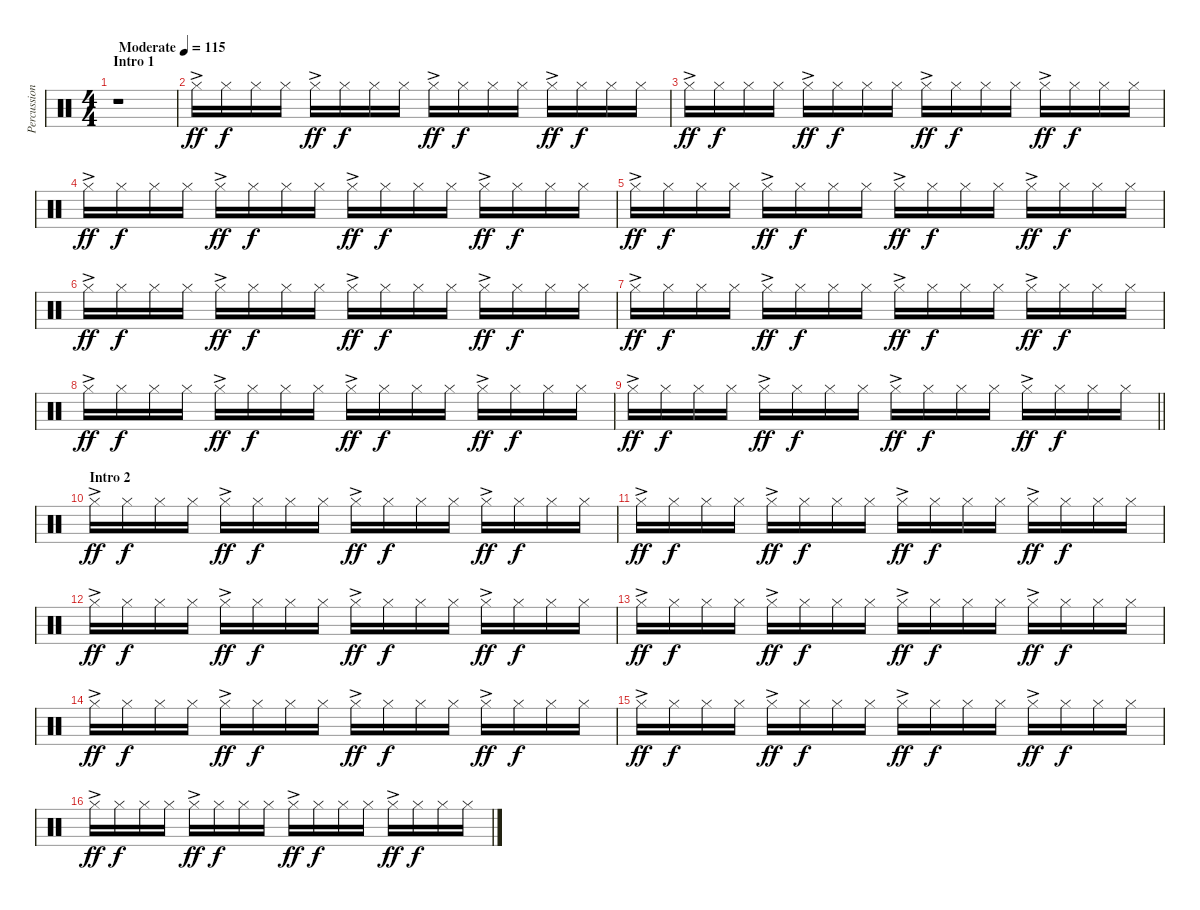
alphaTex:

\track ("Percussion" "Percussion") {instrument percussion}
\staff {score}
\articulation defaults
\ts (4 4)
\section ("" "Intro 1")
\tempo (115 "Moderate")
\clef neutral
\ks c
r.1{dy ff} |
"Hi-Hat (closed)"{ac}.16 "Hi-Hat (closed)".16{dy f} "Hi-Hat (closed)".16 "Hi-Hat (closed)".16 "Hi-Hat (closed)"{ac}.16{dy ff} "Hi-Hat (closed)".16{dy f} "Hi-Hat (closed)".16 "Hi-Hat (closed)".16 "Hi-Hat (closed)"{ac}.16{dy ff} "Hi-Hat (closed)".16{dy f} "Hi-Hat (closed)".16 "Hi-Hat (closed)".16 "Hi-Hat (closed)"{ac}.16{dy ff} "Hi-Hat (closed)".16{dy f} "Hi-Hat (closed)".16 "Hi-Hat (closed)".16 |
"Hi-Hat (closed)"{ac}.16{dy ff} "Hi-Hat (closed)".16{dy f} "Hi-Hat (closed)".16 "Hi-Hat (closed)".16 "Hi-Hat (closed)"{ac}.16{dy ff} "Hi-Hat (closed)".16{dy f} "Hi-Hat (closed)".16 "Hi-Hat (closed)".16 "Hi-Hat (closed)"{ac}.16{dy ff} "Hi-Hat (closed)".16{dy f} "Hi-Hat (closed)".16 "Hi-Hat (closed)".16 "Hi-Hat (closed)"{ac}.16{dy ff} "Hi-Hat (closed)".16{dy f} "Hi-Hat (closed)".16 "Hi-Hat (closed)".16 |
"Hi-Hat (closed)"{ac}.16{dy ff} "Hi-Hat (closed)".16{dy f} "Hi-Hat (closed)".16 "Hi-Hat (closed)".16 "Hi-Hat (closed)"{ac}.16{dy ff} "Hi-Hat (closed)".16{dy f} "Hi-Hat (closed)".16 "Hi-Hat (closed)".16 "Hi-Hat (closed)"{ac}.16{dy ff} "Hi-Hat (closed)".16{dy f} "Hi-Hat (closed)".16 "Hi-Hat (closed)".16 "Hi-Hat (closed)"{ac}.16{dy ff} "Hi-Hat (closed)".16{dy f} "Hi-Hat (closed)".16 "Hi-Hat (closed)".16 |
"Hi-Hat (closed)"{ac}.16{dy ff} "Hi-Hat (closed)".16{dy f} "Hi-Hat (closed)".16 "Hi-Hat (closed)".16 "Hi-Hat (closed)"{ac}.16{dy ff} "Hi-Hat (closed)".16{dy f} "Hi-Hat (closed)".16 "Hi-Hat (closed)".16 "Hi-Hat (closed)"{ac}.16{dy ff} "Hi-Hat (closed)".16{dy f} "Hi-Hat (closed)".16 "Hi-Hat (closed)".16 "Hi-Hat (closed)"{ac}.16{dy ff} "Hi-Hat (closed)".16{dy f} "Hi-Hat (closed)".16 "Hi-Hat (closed)".16 |
"Hi-Hat (closed)"{ac}.16{dy ff} "Hi-Hat (closed)".16{dy f} "Hi-Hat (closed)".16 "Hi-Hat (closed)".16 "Hi-Hat (closed)"{ac}.16{dy ff} "Hi-Hat (closed)".16{dy f} "Hi-Hat (closed)".16 "Hi-Hat (closed)".16 "Hi-Hat (closed)"{ac}.16{dy ff} "Hi-Hat (closed)".16{dy f} "Hi-Hat (closed)".16 "Hi-Hat (closed)".16 "Hi-Hat (closed)"{ac}.16{dy ff} "Hi-Hat (closed)".16{dy f} "Hi-Hat (closed)".16 "Hi-Hat (closed)".16 |
"Hi-Hat (closed)"{ac}.16{dy ff} "Hi-Hat (closed)".16{dy f} "Hi-Hat (closed)".16 "Hi-Hat (closed)".16 "Hi-Hat (closed)"{ac}.16{dy ff} "Hi-Hat (closed)".16{dy f} "Hi-Hat (closed)".16 "Hi-Hat (closed)".16 "Hi-Hat (closed)"{ac}.16{dy ff} "Hi-Hat (closed)".16{dy f} "Hi-Hat (closed)".16 "Hi-Hat (closed)".16 "Hi-Hat (closed)"{ac}.16{dy ff} "Hi-Hat (closed)".16{dy f} "Hi-Hat (closed)".16 "Hi-Hat (closed)".16 |
"Hi-Hat (closed)"{ac}.16{dy ff} "Hi-Hat (closed)".16{dy f} "Hi-Hat (closed)".16 "Hi-Hat (closed)".16 "Hi-Hat (closed)"{ac}.16{dy ff} "Hi-Hat (closed)".16{dy f} "Hi-Hat (closed)".16 "Hi-Hat (closed)".16 "Hi-Hat (closed)"{ac}.16{dy ff} "Hi-Hat (closed)".16{dy f} "Hi-Hat (closed)".16 "Hi-Hat (closed)".16 "Hi-Hat (closed)"{ac}.16{dy ff} "Hi-Hat (closed)".16{dy f} "Hi-Hat (closed)".16 "Hi-Hat (closed)".16 |
\barLineRight lightlight "Hi-Hat (closed)"{ac}.16{dy ff} "Hi-Hat (closed)".16{dy f} "Hi-Hat (closed)".16 "Hi-Hat (closed)".16 "Hi-Hat (closed)"{ac}.16{dy ff} "Hi-Hat (closed)".16{dy f} "Hi-Hat (closed)".16 "Hi-Hat (closed)".16 "Hi-Hat (closed)"{ac}.16{dy ff} "Hi-Hat (closed)".16{dy f} "Hi-Hat (closed)".16 "Hi-Hat (closed)".16 "Hi-Hat (closed)"{ac}.16{dy ff} "Hi-Hat (closed)".16{dy f} "Hi-Hat (closed)".16 "Hi-Hat (closed)".16
|
\section ("" "Intro 2")
"Hi-Hat (closed)"{ac}.16{dy ff} "Hi-Hat (closed)".16{dy f} "Hi-Hat (closed)".16 "Hi-Hat (closed)".16 "Hi-Hat (closed)"{ac}.16{dy ff} "Hi-Hat (closed)".16{dy f} "Hi-Hat (closed)".16 "Hi-Hat (closed)".16 "Hi-Hat (closed)"{ac}.16{dy ff} "Hi-Hat (closed)".16{dy f} "Hi-Hat (closed)".16 "Hi-Hat (closed)".16 "Hi-Hat (closed)"{ac}.16{dy ff} "Hi-Hat (closed)".16{dy f} "Hi-Hat (closed)".16 "Hi-Hat (closed)".16 |
"Hi-Hat (closed)"{ac}.16{dy ff} "Hi-Hat (closed)".16{dy f} "Hi-Hat (closed)".16 "Hi-Hat (closed)".16 "Hi-Hat (closed)"{ac}.16{dy ff} "Hi-Hat (closed)".16{dy f} "Hi-Hat (closed)".16 "Hi-Hat (closed)".16 "Hi-Hat (closed)"{ac}.16{dy ff} "Hi-Hat (closed)".16{dy f} "Hi-Hat (closed)".16 "Hi-Hat (closed)".16 "Hi-Hat (closed)"{ac}.16{dy ff} "Hi-Hat (closed)".16{dy f} "Hi-Hat (closed)".16 "Hi-Hat (closed)".16 |
"Hi-Hat (closed)"{ac}.16{dy ff} "Hi-Hat (closed)".16{dy f} "Hi-Hat (closed)".16 "Hi-Hat (closed)".16 "Hi-Hat (closed)"{ac}.16{dy ff} "Hi-Hat (closed)".16{dy f} "Hi-Hat (closed)".16 "Hi-Hat (closed)".16 "Hi-Hat (closed)"{ac}.16{dy ff} "Hi-Hat (closed)".16{dy f} "Hi-Hat (closed)".16 "Hi-Hat (closed)".16 "Hi-Hat (closed)"{ac}.16{dy ff} "Hi-Hat (closed)".16{dy f} "Hi-Hat (closed)".16 "Hi-Hat (closed)".16 |
"Hi-Hat (closed)"{ac}.16{dy ff} "Hi-Hat (closed)".16{dy f} "Hi-Hat (closed)".16 "Hi-Hat (closed)".16 "Hi-Hat (closed)"{ac}.16{dy ff} "Hi-Hat (closed)".16{dy f} "Hi-Hat (closed)".16 "Hi-Hat (closed)".16 "Hi-Hat (closed)"{ac}.16{dy ff} "Hi-Hat (closed)".16{dy f} "Hi-Hat (closed)".16 "Hi-Hat (closed)".16 "Hi-Hat (closed)"{ac}.16{dy ff} "Hi-Hat (closed)".16{dy f} "Hi-Hat (closed)".16 "Hi-Hat (closed)".16 |
"Hi-Hat (closed)"{ac}.16{dy ff} "Hi-Hat (closed)".16{dy f} "Hi-Hat (closed)".16 "Hi-Hat (closed)".16 "Hi-Hat (closed)"{ac}.16{dy ff} "Hi-Hat (closed)".16{dy f} "Hi-Hat (closed)".16 "Hi-Hat (closed)".16 "Hi-Hat (closed)"{ac}.16{dy ff} "Hi-Hat (closed)".16{dy f} "Hi-Hat (closed)".16 "Hi-Hat (closed)".16 "Hi-Hat (closed)"{ac}.16{dy ff} "Hi-Hat (closed)".16{dy f} "Hi-Hat (closed)".16 "Hi-Hat (closed)".16 |
"Hi-Hat (closed)"{ac}.16{dy ff} "Hi-Hat (closed)".16{dy f} "Hi-Hat (closed)".16 "Hi-Hat (closed)".16 "Hi-Hat (closed)"{ac}.16{dy ff} "Hi-Hat (closed)".16{dy f} "Hi-Hat (closed)".16 "Hi-Hat (closed)".16 "Hi-Hat (closed)"{ac}.16{dy ff} "Hi-Hat (closed)".16{dy f} "Hi-Hat (closed)".16 "Hi-Hat (closed)".16 "Hi-Hat (closed)"{ac}.16{dy ff} "Hi-Hat (closed)".16{dy f} "Hi-Hat (closed)".16 "Hi-Hat (closed)".16 |
"Hi-Hat (closed)"{ac}.16{dy ff} "Hi-Hat (closed)".16{dy f} "Hi-Hat (closed)".16 "Hi-Hat (closed)".16 "Hi-Hat (closed)"{ac}.16{dy ff} "Hi-Hat (closed)".16{dy f} "Hi-Hat (closed)".16 "Hi-Hat (closed)".16 "Hi-Hat (closed)"{ac}.16{dy ff} "Hi-Hat (closed)".16{dy f} "Hi-Hat (closed)".16 "Hi-Hat (closed)".16 "Hi-Hat (closed)"{ac}.16{dy ff} "Hi-Hat (closed)".16{dy f} "Hi-Hat (closed)".16 "Hi-Hat (closed)".16
